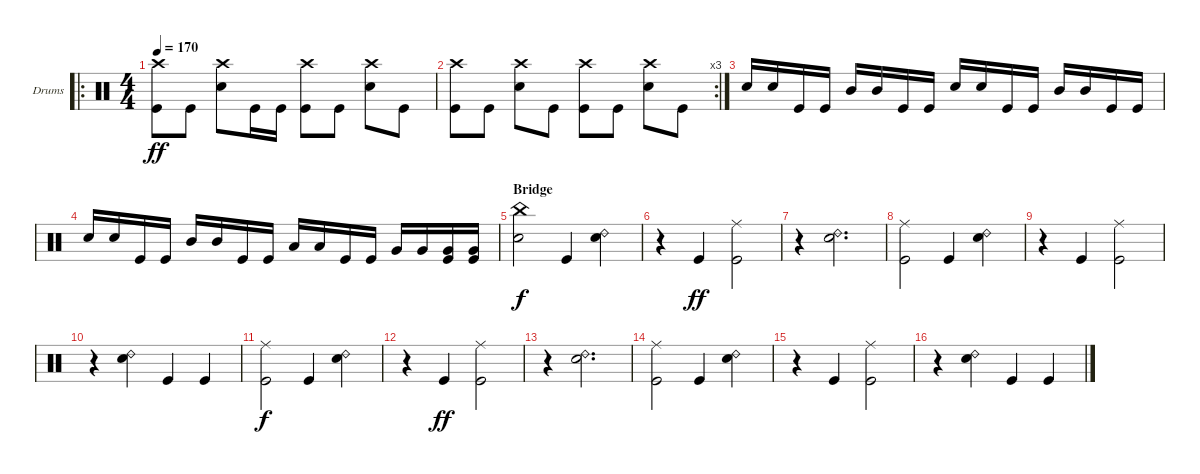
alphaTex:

\defaultSystemsLayout 4
\bracketExtendMode groupsimilarinstruments
\firstSystemTrackNameOrientation horizontal
\otherSystemsTrackNameOrientation horizontal
\track ("Inferno" "Drums") {instrument percussion}
\staff {score}
\articulation defaults
\ro
\ts (4 4)
\tempo 170
\clef neutral
\ks c
("Kick (hit)" "Crash high (hit)").8{dy ff} "Kick (hit)".8 ("Snare (hit) 2" "Crash high (hit)").8 "Kick (hit)".16 "Kick (hit)".16 ("Kick (hit)" "Crash high (hit)").8 "Kick (hit)".8 ("Snare (hit) 2" "Crash high (hit)").8 "Kick (hit)".8 |
\rc 3
("Kick (hit)" "Crash high (hit)").8 "Kick (hit)".8 ("Snare (hit) 2" "Crash high (hit)").8 "Kick (hit)".8 ("Kick (hit)" "Crash high (hit)").8 "Kick (hit)".8 ("Snare (hit) 2" "Crash high (hit)").8 "Kick (hit)".8 |
"Snare (hit) 2".16 "Snare (hit) 2".16 "Kick (hit)".16 "Kick (hit)".16 "Mid Tom (hit)".16 "Mid Tom (hit)".16 "Kick (hit)".16 "Kick (hit)".16 "Snare (hit) 2".16 "Snare (hit) 2".16 "Kick (hit)".16 "Kick (hit)".16 "Mid Tom (hit)".16 "Mid Tom (hit)".16 "Kick (hit)".16 "Kick (hit)".16 |
"Snare (hit) 2".16 "Snare (hit) 2".16 "Kick (hit)".16 "Kick (hit)".16 "Mid Tom (hit)".16 "Mid Tom (hit)".16 "Kick (hit)".16 "Kick (hit)".16 "Low Tom (hit)".16 "Low Tom (hit)".16 "Kick (hit)".16 "Kick (hit)".16 "Very Low Tom (hit)".16 "Very Low Tom (hit)".16 ("Kick (hit)" "Very Low Tom (hit)").16 ("Kick (hit)" "Very Low Tom (hit)").16 |
\section ("" "Bridge")
("Snare (hit) 2" "China (hit)").2{dy f} "Kick (hit)".4 ("Snare (hit) 2" "Ride (bell) 2").4 |
r.4 "Kick (hit)".4{dy ff} ("Kick (hit)" "Ride (middle)").2 |
r.4 ("Snare (hit) 2" "Ride (bell) 2").2{d} |
("Kick (hit)" "Ride (middle)").2 "Kick (hit)".4 ("Snare (hit) 2" "Ride (bell) 2").4 |
r.4 "Kick (hit)".4 ("Kick (hit)" "Ride (middle)").2 |
r.4 ("Snare (hit) 2" "Ride (bell) 2").4 "Kick (hit)".4 "Kick (hit)".4 |
("Kick (hit)" "Ride (middle)").2{dy f} "Kick (hit)".4 ("Snare (hit) 2" "Ride (bell) 2").4 |
r.4 "Kick (hit)".4{dy ff} ("Kick (hit)" "Ride (middle)").2 |
r.4 ("Snare (hit) 2" "Ride (bell) 2").2{d} |
("Kick (hit)" "Ride (middle)").2 "Kick (hit)".4 ("Snare (hit) 2" "Ride (bell) 2").4 |
r.4 "Kick (hit)".4 ("Kick (hit)" "Ride (middle)").2 |
r.4 ("Snare (hit) 2" "Ride (bell) 2").4 "Kick (hit)".4 "Kick (hit)".4
